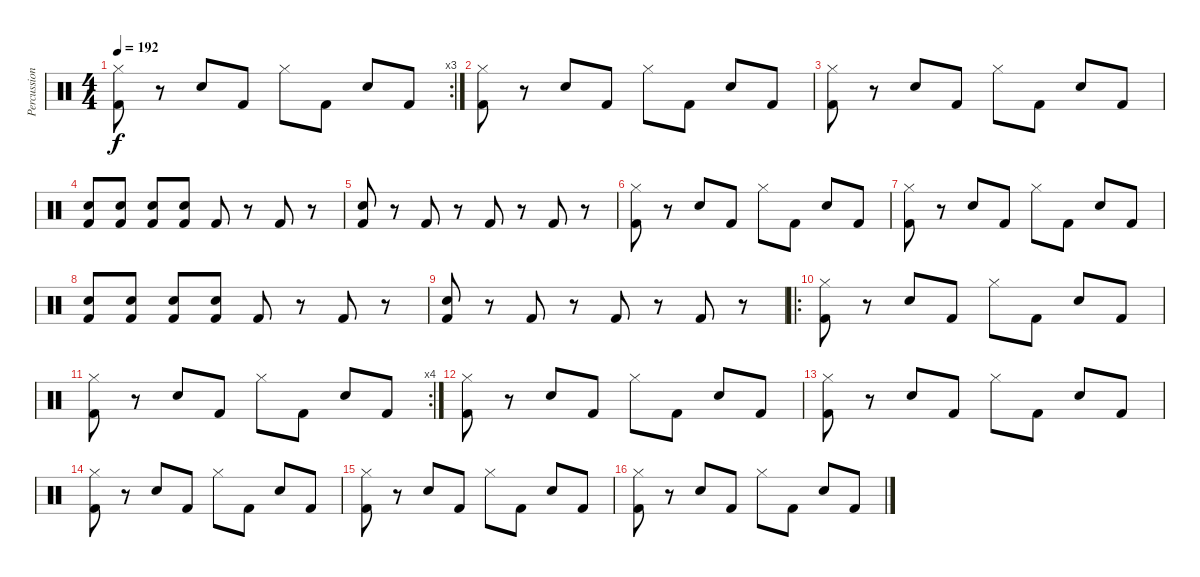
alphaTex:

\track ("Percussions" "Percussion") {instrument percussion}
\staff {score}
\articulation defaults
\rc 3
\ts (4 4)
\tempo 192
\clef neutral
\ks c
("Kick (hit) 2" "Hi-Hat (closed)").8{dy f} r.8 "Snare (hit) 2".8 "Kick (hit) 2".8 "Hi-Hat (closed)".8 "Kick (hit) 2".8 "Snare (hit) 2".8 "Kick (hit) 2".8 |
("Kick (hit) 2" "Hi-Hat (closed)").8 r.8 "Snare (hit) 2".8 "Kick (hit) 2".8 "Hi-Hat (closed)".8 "Kick (hit) 2".8 "Snare (hit) 2".8 "Kick (hit) 2".8 |
("Kick (hit) 2" "Hi-Hat (closed)").8 r.8 "Snare (hit) 2".8 "Kick (hit) 2".8 "Hi-Hat (closed)".8 "Kick (hit) 2".8 "Snare (hit) 2".8 "Kick (hit) 2".8 |
("Snare (hit) 2" "Kick (hit) 2").8 ("Snare (hit) 2" "Kick (hit) 2").8 ("Snare (hit) 2" "Kick (hit) 2").8 ("Snare (hit) 2" "Kick (hit) 2").8 "Kick (hit) 2".8 r.8 "Kick (hit) 2".8 r.8 |
("Snare (hit) 2" "Kick (hit) 2").8 r.8 "Kick (hit) 2".8 r.8 "Kick (hit) 2".8 r.8 "Kick (hit) 2".8 r.8 |
("Kick (hit) 2" "Hi-Hat (closed)").8 r.8 "Snare (hit) 2".8 "Kick (hit) 2".8 "Hi-Hat (closed)".8 "Kick (hit) 2".8 "Snare (hit) 2".8 "Kick (hit) 2".8 |
("Kick (hit) 2" "Hi-Hat (closed)").8 r.8 "Snare (hit) 2".8 "Kick (hit) 2".8 "Hi-Hat (closed)".8 "Kick (hit) 2".8 "Snare (hit) 2".8 "Kick (hit) 2".8 |
("Snare (hit) 2" "Kick (hit) 2").8 ("Snare (hit) 2" "Kick (hit) 2").8 ("Snare (hit) 2" "Kick (hit) 2").8 ("Snare (hit) 2" "Kick (hit) 2").8 "Kick (hit) 2".8 r.8 "Kick (hit) 2".8 r.8 |
("Snare (hit) 2" "Kick (hit) 2").8 r.8 "Kick (hit) 2".8 r.8 "Kick (hit) 2".8 r.8 "Kick (hit) 2".8 r.8 |
\ro
("Kick (hit) 2" "Hi-Hat (closed)").8 r.8 "Snare (hit) 2".8 "Kick (hit) 2".8 "Hi-Hat (closed)".8 "Kick (hit) 2".8 "Snare (hit) 2".8 "Kick (hit) 2".8 |
\rc 4
("Kick (hit) 2" "Hi-Hat (closed)").8 r.8 "Snare (hit) 2".8 "Kick (hit) 2".8 "Hi-Hat (closed)".8 "Kick (hit) 2".8 "Snare (hit) 2".8 "Kick (hit) 2".8 |
("Kick (hit) 2" "Hi-Hat (closed)").8 r.8 "Snare (hit) 2".8 "Kick (hit) 2".8 "Hi-Hat (closed)".8 "Kick (hit) 2".8 "Snare (hit) 2".8 "Kick (hit) 2".8 |
("Kick (hit) 2" "Hi-Hat (closed)").8 r.8 "Snare (hit) 2".8 "Kick (hit) 2".8 "Hi-Hat (closed)".8 "Kick (hit) 2".8 "Snare (hit) 2".8 "Kick (hit) 2".8 |
("Kick (hit) 2" "Hi-Hat (closed)").8 r.8 "Snare (hit) 2".8 "Kick (hit) 2".8 "Hi-Hat (closed)".8 "Kick (hit) 2".8 "Snare (hit) 2".8 "Kick (hit) 2".8 |
("Kick (hit) 2" "Hi-Hat (closed)").8 r.8 "Snare (hit) 2".8 "Kick (hit) 2".8 "Hi-Hat (closed)".8 "Kick (hit) 2".8 "Snare (hit) 2".8 "Kick (hit) 2".8 |
("Kick (hit) 2" "Hi-Hat (closed)").8 r.8 "Snare (hit) 2".8 "Kick (hit) 2".8 "Hi-Hat (closed)".8 "Kick (hit) 2".8 "Snare (hit) 2".8 "Kick (hit) 2".8
